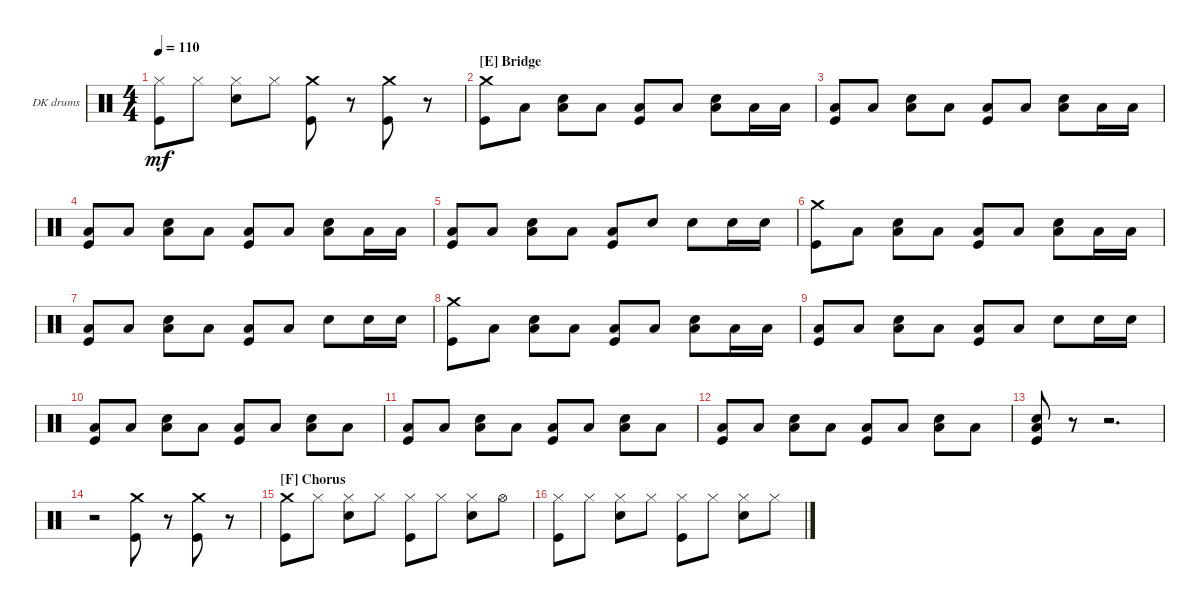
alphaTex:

\defaultSystemsLayout 4
\bracketExtendMode groupsimilarinstruments
\firstSystemTrackNameOrientation horizontal
\otherSystemsTrackNameOrientation horizontal
\track ("Dan Konopka" "DK drums") {instrument percussion}
\staff {score}
\articulation defaults
\ts (4 4)
\tempo 110
\clef neutral
\ks c
("Hi-Hat (closed)" "Kick (hit)").8{dy mf} "Hi-Hat (closed)".8 ("Hi-Hat (closed)" "Snare (hit) 2").8 "Hi-Hat (closed)".8 ("Crash medium (hit)" "Kick (hit)").8 r.8 ("Crash medium (hit)" "Kick (hit)").8 r.8 |
\section ("E" "Bridge")
("Kick (hit)" "Crash medium (hit)").8 "Low Tom (hit)".8 ("Low Tom (hit)" "Snare (hit) 2").8 "Low Tom (hit)".8 ("Low Tom (hit)" "Kick (hit)").8 "Low Tom (hit)".8 ("Low Tom (hit)" "Snare (hit) 2").8 "Low Tom (hit)".16 "Low Tom (hit)".16 |
("Low Tom (hit)" "Kick (hit)").8 "Low Tom (hit)".8 ("Low Tom (hit)" "Snare (hit) 2").8 "Low Tom (hit)".8 ("Low Tom (hit)" "Kick (hit)").8 "Low Tom (hit)".8 ("Low Tom (hit)" "Snare (hit) 2").8 "Low Tom (hit)".16 "Low Tom (hit)".16 |
("Low Tom (hit)" "Kick (hit)").8 "Low Tom (hit)".8 ("Low Tom (hit)" "Snare (hit) 2").8 "Low Tom (hit)".8 ("Low Tom (hit)" "Kick (hit)").8 "Low Tom (hit)".8 ("Low Tom (hit)" "Snare (hit) 2").8 "Low Tom (hit)".16 "Low Tom (hit)".16 |
("Low Tom (hit)" "Kick (hit)").8 "Low Tom (hit)".8 ("Low Tom (hit)" "Snare (hit) 2").8 "Low Tom (hit)".8 ("Low Tom (hit)" "Kick (hit)").8 "Snare (hit) 2".8 "Snare (hit) 2".8 "Snare (hit) 2".16 "Snare (hit) 2".16 |
("Kick (hit)" "Crash medium (hit)").8 "Low Tom (hit)".8 ("Low Tom (hit)" "Snare (hit) 2").8 "Low Tom (hit)".8 ("Low Tom (hit)" "Kick (hit)").8 "Low Tom (hit)".8 ("Low Tom (hit)" "Snare (hit) 2").8 "Low Tom (hit)".16 "Low Tom (hit)".16 |
("Low Tom (hit)" "Kick (hit)").8 "Low Tom (hit)".8 ("Low Tom (hit)" "Snare (hit) 2").8 "Low Tom (hit)".8 ("Low Tom (hit)" "Kick (hit)").8 "Low Tom (hit)".8 "Snare (hit) 2".8 "Snare (hit) 2".16 "Snare (hit) 2".16 |
("Kick (hit)" "Crash medium (hit)").8 "Low Tom (hit)".8 ("Low Tom (hit)" "Snare (hit) 2").8 "Low Tom (hit)".8 ("Low Tom (hit)" "Kick (hit)").8 "Low Tom (hit)".8 ("Low Tom (hit)" "Snare (hit) 2").8 "Low Tom (hit)".16 "Low Tom (hit)".16 |
("Low Tom (hit)" "Kick (hit)").8 "Low Tom (hit)".8 ("Low Tom (hit)" "Snare (hit) 2").8 "Low Tom (hit)".8 ("Low Tom (hit)" "Kick (hit)").8 "Low Tom (hit)".8 "Snare (hit) 2".8 "Snare (hit) 2".16 "Snare (hit) 2".16 |
("Low Tom (hit)" "Kick (hit)").8 "Low Tom (hit)".8 ("Low Tom (hit)" "Snare (hit) 2").8 "Low Tom (hit)".8 ("Low Tom (hit)" "Kick (hit)").8 "Low Tom (hit)".8 ("Low Tom (hit)" "Snare (hit) 2").8 "Low Tom (hit)".8 |
("Low Tom (hit)" "Kick (hit)").8 "Low Tom (hit)".8 ("Low Tom (hit)" "Snare (hit) 2").8 "Low Tom (hit)".8 ("Low Tom (hit)" "Kick (hit)").8 "Low Tom (hit)".8 ("Low Tom (hit)" "Snare (hit) 2").8 "Low Tom (hit)".8 |
("Low Tom (hit)" "Kick (hit)").8 "Low Tom (hit)".8 ("Low Tom (hit)" "Snare (hit) 2").8 "Low Tom (hit)".8 ("Low Tom (hit)" "Kick (hit)").8 "Low Tom (hit)".8 ("Low Tom (hit)" "Snare (hit) 2").8 "Low Tom (hit)".8 |
("Kick (hit)" "Snare (hit) 2" "Low Tom (hit)").8 r.8 r.2{d} |
r.2 ("Crash medium (hit)" "Kick (hit)").8 r.8 ("Crash medium (hit)" "Kick (hit)").8 r.8 |
\section ("F" "Chorus")
("Crash medium (hit)" "Kick (hit)").8 "Hi-Hat (closed)".8 ("Hi-Hat (closed)" "Snare (hit) 2").8 "Hi-Hat (closed)".8 ("Hi-Hat (closed)" "Kick (hit)").8 "Hi-Hat (closed)".8 ("Hi-Hat (closed)" "Snare (hit) 2").8 "Hi-Hat (open)".8 |
("Hi-Hat (closed)" "Kick (hit)").8 "Hi-Hat (closed)".8 ("Hi-Hat (closed)" "Snare (hit) 2").8 "Hi-Hat (closed)".8 ("Hi-Hat (closed)" "Kick (hit)").8 "Hi-Hat (closed)".8 ("Hi-Hat (closed)" "Snare (hit) 2").8 "Hi-Hat (closed)".8
